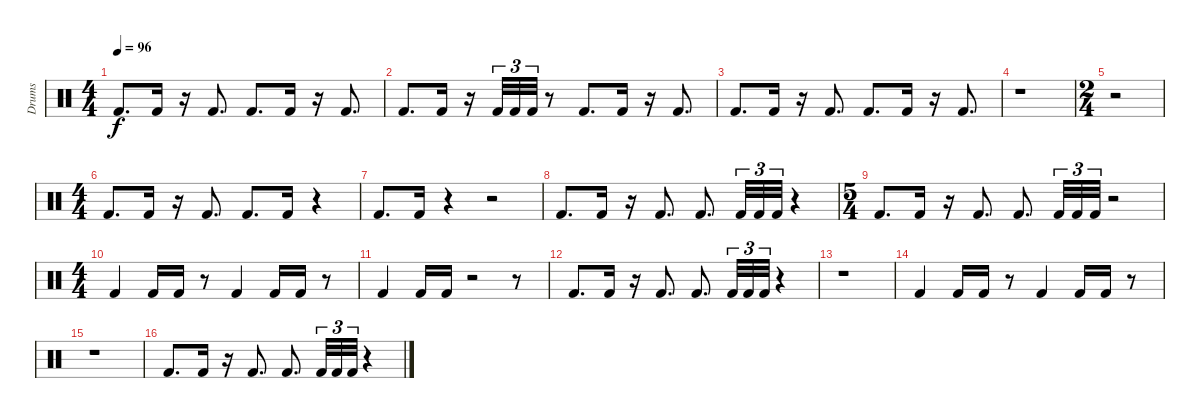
\track ("Drums" "Drums") {instrument percussion}
\staff {score}
\articulation defaults
\ts (4 4)
\tempo 96
\clef neutral
\ks c "Kick (hit) 2".8{d dy f} "Kick (hit) 2".16
r.16 "Kick (hit) 2".8{d} "Kick (hit) 2".8{d} "Kick (hit) 2".16 r.16 "Kick (hit) 2".8{d} |
"Kick (hit) 2".8{d} "Kick (hit) 2".16 r.16 "Kick (hit) 2".32{tu (3 2)} "Kick (hit) 2".32{tu (3 2)} "Kick (hit) 2".32{tu (3 2)} r.8 "Kick (hit) 2".8{d} "Kick (hit) 2".16 r.16 "Kick (hit) 2".8{d} |
"Kick (hit) 2".8{d} "Kick (hit) 2".16 r.16 "Kick (hit) 2".8{d} "Kick (hit) 2".8{d} "Kick (hit) 2".16 r.16 "Kick (hit) 2".8{d} |
r.1 |
\ts (2 4)
r.2 |
\ts (4 4)
"Kick (hit) 2".8{d} "Kick (hit) 2".16 r.16 "Kick (hit) 2".8{d} "Kick (hit) 2".8{d} "Kick (hit) 2".16 r.4 |
"Kick (hit) 2".8{d} "Kick (hit) 2".16 r.4 r.2 |
"Kick (hit) 2".8{d} "Kick (hit) 2".16 r.16 "Kick (hit) 2".8{d} "Kick (hit) 2".8{d} "Kick (hit) 2".32{tu (3 2)} "Kick (hit) 2".32{tu (3 2)} "Kick (hit) 2".32{tu (3 2)} r.4 |
\ts (5 4)
"Kick (hit) 2".8{d} "Kick (hit) 2".16 r.16 "Kick (hit) 2".8{d} "Kick (hit) 2".8{d} "Kick (hit) 2".32{tu (3 2)} "Kick (hit) 2".32{tu (3 2)} "Kick (hit) 2".32{tu (3 2)} r.2 |
\ts (4 4)
"Kick (hit) 2".4 "Kick (hit) 2".16 "Kick (hit) 2".16 r.8 "Kick (hit) 2".4 "Kick (hit) 2".16 "Kick (hit) 2".16 r.8 |
"Kick (hit) 2".4 "Kick (hit) 2".16 "Kick (hit) 2".16 r.2 r.8 |
"Kick (hit) 2".8{d} "Kick (hit) 2".16 r.16 "Kick (hit) 2".8{d} "Kick (hit) 2".8{d} "Kick (hit) 2".32{tu (3 2)} "Kick (hit) 2".32{tu (3 2)} "Kick (hit) 2".32{tu (3 2)} r.4 |
r.1 |
"Kick (hit) 2".4 "Kick (hit) 2".16 "Kick (hit) 2".16 r.8 "Kick (hit) 2".4 "Kick (hit) 2".16 "Kick (hit) 2".16 r.8 |
r.1 |
"Kick (hit) 2".8{d} "Kick (hit) 2".16 r.16 "Kick (hit) 2".8{d} "Kick (hit) 2".8{d} "Kick (hit) 2".32{tu (3 2)} "Kick (hit) 2".32{tu (3 2)} "Kick (hit) 2".32{tu (3 2)} r.4
